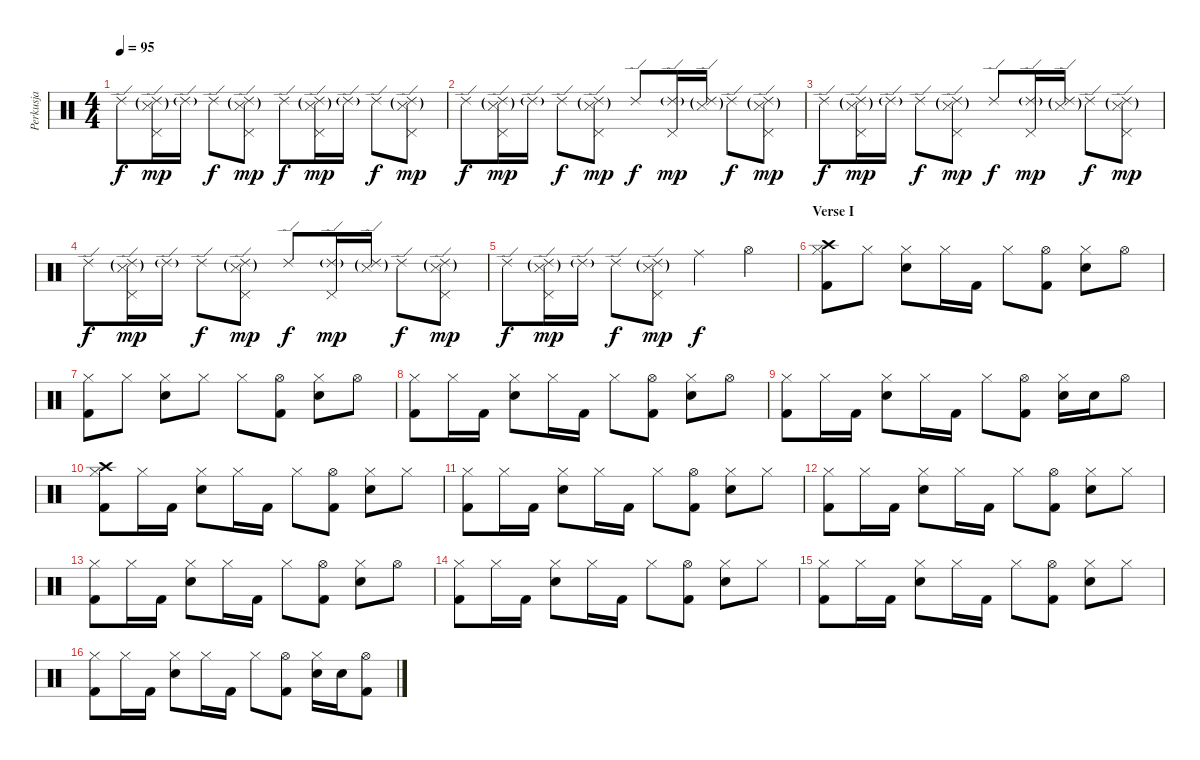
\track ("Perkusja" "Perkusja") {instrument percussion}
\staff {score}
\articulation defaults
\ts (4 4)
\tempo 95
\clef neutral
\ks c "Ride (edge) 2".8{dy f}
("Ride (edge) 2"{g} "Pedal Hi-Hat (hit)" "Snare (side stick) 3"{g}).16{dy mp} "Ride (edge) 2"{g}.16 "Ride (edge) 2".8{dy f} ("Ride (edge) 2"{g} "Pedal Hi-Hat (hit)" "Snare (side stick) 3"{g}).8{dy mp} "Ride (edge) 2".8{dy f} ("Ride (edge) 2"{g} "Pedal Hi-Hat (hit)" "Snare (side stick) 3"{g}).16{dy mp} "Ride (edge) 2"{g}.16 "Ride (edge) 2".8{dy f} ("Ride (edge) 2"{g} "Pedal Hi-Hat (hit)" "Snare (side stick) 3"{g}).8{dy mp} |
"Ride (edge) 2".8{dy f} ("Ride (edge) 2"{g} "Pedal Hi-Hat (hit)" "Snare (side stick) 3"{g}).16{dy mp} "Ride (edge) 2"{g}.16 "Ride (edge) 2".8{dy f} ("Ride (edge) 2"{g} "Pedal Hi-Hat (hit)" "Snare (side stick) 3"{g}).8{dy mp} "Ride (edge) 2".8{dy f} ("Ride (edge) 2"{g} "Pedal Hi-Hat (hit)").16{dy mp} ("Ride (edge) 2"{g} "Snare (side stick) 3"{g}).16 "Ride (edge) 2".8{dy f} ("Ride (edge) 2"{g} "Pedal Hi-Hat (hit)" "Snare (side stick) 3"{g}).8{dy mp} |
"Ride (edge) 2".8{dy f} ("Ride (edge) 2"{g} "Pedal Hi-Hat (hit)" "Snare (side stick) 3"{g}).16{dy mp} "Ride (edge) 2"{g}.16 "Ride (edge) 2".8{dy f} ("Ride (edge) 2"{g} "Pedal Hi-Hat (hit)" "Snare (side stick) 3"{g}).8{dy mp} "Ride (edge) 2".8{dy f} ("Ride (edge) 2"{g} "Pedal Hi-Hat (hit)").16{dy mp} ("Ride (edge) 2"{g} "Snare (side stick) 3"{g}).16 "Ride (edge) 2".8{dy f} ("Ride (edge) 2"{g} "Pedal Hi-Hat (hit)" "Snare (side stick) 3"{g}).8{dy mp} |
"Ride (edge) 2".8{dy f} ("Ride (edge) 2"{g} "Pedal Hi-Hat (hit)" "Snare (side stick) 3"{g}).16{dy mp} "Ride (edge) 2"{g}.16 "Ride (edge) 2".8{dy f} ("Ride (edge) 2"{g} "Pedal Hi-Hat (hit)" "Snare (side stick) 3"{g}).8{dy mp} "Ride (edge) 2".8{dy f} ("Ride (edge) 2"{g} "Pedal Hi-Hat (hit)").16{dy mp} ("Ride (edge) 2"{g} "Snare (side stick) 3"{g}).16 "Ride (edge) 2".8{dy f} ("Ride (edge) 2"{g} "Pedal Hi-Hat (hit)" "Snare (side stick) 3"{g}).8{dy mp} |
"Ride (edge) 2".8{dy f} ("Ride (edge) 2"{g} "Pedal Hi-Hat (hit)" "Snare (side stick) 3"{g}).16{dy mp} "Ride (edge) 2"{g}.16 "Ride (edge) 2".8{dy f} ("Ride (edge) 2"{g} "Pedal Hi-Hat (hit)" "Snare (side stick) 3"{g}).8{dy mp} "Ride (middle)".4{dy f} "Hi-Hat (open)".4 |
\section ("" "Verse I")
("Kick (hit) 2" "Hi-Hat (closed)" "Crash high (hit)").8 "Hi-Hat (closed)".8 ("Electric Snare (hit)" "Hi-Hat (closed)").8 "Hi-Hat (closed)".16 "Kick (hit) 2".16 "Hi-Hat (closed)".8 ("Kick (hit) 2" "Hi-Hat (open)").8 ("Electric Snare (hit)" "Hi-Hat (closed)").8 "Hi-Hat (open)".8 |
("Kick (hit) 2" "Hi-Hat (closed)").8 "Hi-Hat (closed)".8 ("Electric Snare (hit)" "Hi-Hat (closed)").8 "Hi-Hat (closed)".8 "Hi-Hat (closed)".8 ("Kick (hit) 2" "Hi-Hat (open)").8 ("Electric Snare (hit)" "Hi-Hat (closed)").8 "Hi-Hat (open)".8 |
("Kick (hit) 2" "Hi-Hat (closed)").8 "Hi-Hat (closed)".16 "Kick (hit) 2".16 ("Electric Snare (hit)" "Hi-Hat (closed)").8 "Hi-Hat (closed)".16 "Kick (hit) 2".16 "Hi-Hat (closed)".8 ("Kick (hit) 2" "Hi-Hat (open)").8 ("Electric Snare (hit)" "Hi-Hat (closed)").8 "Hi-Hat (open)".8 |
("Kick (hit) 2" "Hi-Hat (closed)").8 "Hi-Hat (closed)".16 "Kick (hit) 2".16 ("Electric Snare (hit)" "Hi-Hat (closed)").8 "Hi-Hat (closed)".16 "Kick (hit) 2".16 "Hi-Hat (closed)".8 ("Kick (hit) 2" "Hi-Hat (open)").8 ("Electric Snare (hit)" "Hi-Hat (closed)").16 "Electric Snare (hit)".16 "Hi-Hat (open)".8 |
("Kick (hit) 2" "Hi-Hat (closed)" "Crash high (hit)").8 "Hi-Hat (closed)".16 "Kick (hit) 2".16 ("Electric Snare (hit)" "Hi-Hat (closed)").8 "Hi-Hat (closed)".16 "Kick (hit) 2".16 "Hi-Hat (closed)".8 ("Kick (hit) 2" "Hi-Hat (open)").8 ("Electric Snare (hit)" "Hi-Hat (closed)").8 "Hi-Hat (closed)".8 |
("Kick (hit) 2" "Hi-Hat (closed)").8 "Hi-Hat (closed)".16 "Kick (hit) 2".16 ("Electric Snare (hit)" "Hi-Hat (closed)").8 "Hi-Hat (closed)".16 "Kick (hit) 2".16 "Hi-Hat (closed)".8 ("Kick (hit) 2" "Hi-Hat (open)").8 ("Electric Snare (hit)" "Hi-Hat (closed)").8 "Hi-Hat (closed)".8 |
("Kick (hit) 2" "Hi-Hat (closed)").8 "Hi-Hat (closed)".16 "Kick (hit) 2".16 ("Electric Snare (hit)" "Hi-Hat (closed)").8 "Hi-Hat (closed)".16 "Kick (hit) 2".16 "Hi-Hat (closed)".8 ("Kick (hit) 2" "Hi-Hat (open)").8 ("Electric Snare (hit)" "Hi-Hat (closed)").8 "Hi-Hat (closed)".8 |
("Kick (hit) 2" "Hi-Hat (closed)").8 "Hi-Hat (closed)".16 "Kick (hit) 2".16 ("Electric Snare (hit)" "Hi-Hat (closed)").8 "Hi-Hat (closed)".16 "Kick (hit) 2".16 "Hi-Hat (closed)".8 ("Kick (hit) 2" "Hi-Hat (open)").8 ("Electric Snare (hit)" "Hi-Hat (closed)").8 "Hi-Hat (open)".8 |
("Kick (hit) 2" "Hi-Hat (closed)").8 "Hi-Hat (closed)".16 "Kick (hit) 2".16 ("Electric Snare (hit)" "Hi-Hat (closed)").8 "Hi-Hat (closed)".16 "Kick (hit) 2".16 "Hi-Hat (closed)".8 ("Kick (hit) 2" "Hi-Hat (open)").8 ("Electric Snare (hit)" "Hi-Hat (closed)").8 "Hi-Hat (closed)".8 |
("Kick (hit) 2" "Hi-Hat (closed)").8 "Hi-Hat (closed)".16 "Kick (hit) 2".16 ("Electric Snare (hit)" "Hi-Hat (closed)").8 "Hi-Hat (closed)".16 "Kick (hit) 2".16 "Hi-Hat (closed)".8 ("Kick (hit) 2" "Hi-Hat (open)").8 ("Electric Snare (hit)" "Hi-Hat (closed)").8 "Hi-Hat (closed)".8 |
("Kick (hit) 2" "Hi-Hat (closed)").8 "Hi-Hat (closed)".16 "Kick (hit) 2".16 ("Electric Snare (hit)" "Hi-Hat (closed)").8 "Hi-Hat (closed)".16 "Kick (hit) 2".16 "Hi-Hat (closed)".8 ("Kick (hit) 2" "Hi-Hat (open)").8 ("Electric Snare (hit)" "Hi-Hat (closed)").16 "Electric Snare (hit)".16 ("Kick (hit) 2" "Hi-Hat (open)").8
